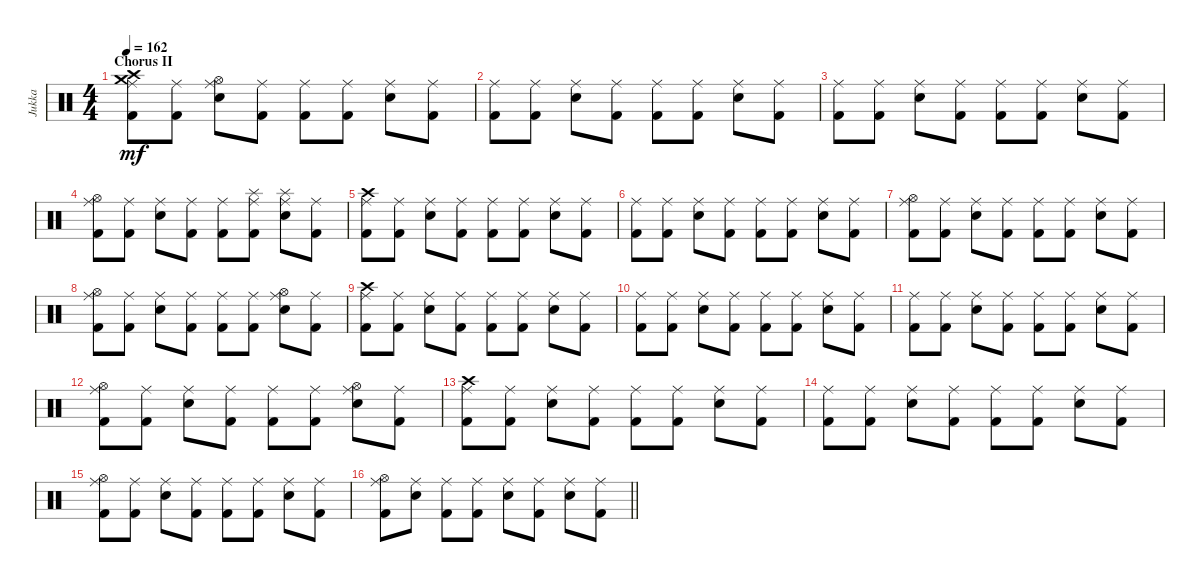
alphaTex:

\track ("Jukka" "Jukka") {instrument percussion}
\staff {score}
\articulation defaults
\ts (4 4)
\section ("" "Chorus II")
\tempo 162
\clef neutral
\ks c
("Crash medium (hit)" "Crash high (hit)" "Ride (middle)" "Kick (hit) 2").8{dy mf} ("Ride (middle)" "Kick (hit) 2").8 ("Hi-Hat (open)" "Ride (middle)" "Electric Snare (hit)").8 ("Ride (middle)" "Kick (hit) 2").8 ("Ride (middle)" "Kick (hit) 2").8 ("Ride (middle)" "Kick (hit) 2").8 ("Ride (middle)" "Electric Snare (hit)").8 ("Ride (middle)" "Kick (hit) 2").8 |
("Ride (middle)" "Kick (hit) 2").8 ("Ride (middle)" "Kick (hit) 2").8 ("Ride (middle)" "Electric Snare (hit)").8 ("Ride (middle)" "Kick (hit) 2").8 ("Ride (middle)" "Kick (hit) 2").8 ("Ride (middle)" "Kick (hit) 2").8 ("Ride (middle)" "Electric Snare (hit)").8 ("Ride (middle)" "Kick (hit) 2").8 |
("Ride (middle)" "Kick (hit) 2").8 ("Ride (middle)" "Kick (hit) 2").8 ("Ride (middle)" "Electric Snare (hit)").8 ("Ride (middle)" "Kick (hit) 2").8 ("Ride (middle)" "Kick (hit) 2").8 ("Ride (middle)" "Kick (hit) 2").8 ("Ride (middle)" "Electric Snare (hit)").8 ("Ride (middle)" "Kick (hit) 2").8 |
("Hi-Hat (open)" "Ride (middle)" "Kick (hit) 2").8 ("Ride (middle)" "Kick (hit) 2").8 ("Ride (middle)" "Electric Snare (hit)").8 ("Ride (middle)" "Kick (hit) 2").8 ("Ride (middle)" "Kick (hit) 2").8 ("Splash (hit)" "Ride (middle)" "Kick (hit) 2").8 ("Splash (hit)" "Ride (middle)" "Electric Snare (hit)").8 ("Ride (middle)" "Kick (hit) 2").8 |
("Crash high (hit)" "Ride (middle)" "Kick (hit) 2").8 ("Ride (middle)" "Kick (hit) 2").8 ("Ride (middle)" "Electric Snare (hit)").8 ("Ride (middle)" "Kick (hit) 2").8 ("Ride (middle)" "Kick (hit) 2").8 ("Ride (middle)" "Kick (hit) 2").8 ("Ride (middle)" "Electric Snare (hit)").8 ("Ride (middle)" "Kick (hit) 2").8 |
("Ride (middle)" "Kick (hit) 2").8 ("Ride (middle)" "Kick (hit) 2").8 ("Ride (middle)" "Electric Snare (hit)").8 ("Ride (middle)" "Kick (hit) 2").8 ("Ride (middle)" "Kick (hit) 2").8 ("Ride (middle)" "Kick (hit) 2").8 ("Ride (middle)" "Electric Snare (hit)").8 ("Ride (middle)" "Kick (hit) 2").8 |
("Hi-Hat (open)" "Ride (middle)" "Kick (hit) 2").8 ("Ride (middle)" "Kick (hit) 2").8 ("Ride (middle)" "Electric Snare (hit)").8 ("Ride (middle)" "Kick (hit) 2").8 ("Ride (middle)" "Kick (hit) 2").8 ("Ride (middle)" "Kick (hit) 2").8 ("Ride (middle)" "Electric Snare (hit)").8 ("Ride (middle)" "Kick (hit) 2").8 |
("Hi-Hat (open)" "Ride (middle)" "Kick (hit) 2").8 ("Ride (middle)" "Kick (hit) 2").8 ("Ride (middle)" "Electric Snare (hit)").8 ("Ride (middle)" "Kick (hit) 2").8 ("Ride (middle)" "Kick (hit) 2").8 ("Ride (middle)" "Kick (hit) 2").8 ("Hi-Hat (open)" "Ride (middle)" "Electric Snare (hit)").8 ("Ride (middle)" "Kick (hit) 2").8 |
("Crash high (hit)" "Ride (middle)" "Kick (hit) 2").8 ("Ride (middle)" "Kick (hit) 2").8 ("Ride (middle)" "Electric Snare (hit)").8 ("Ride (middle)" "Kick (hit) 2").8 ("Ride (middle)" "Kick (hit) 2").8 ("Ride (middle)" "Kick (hit) 2").8 ("Ride (middle)" "Electric Snare (hit)").8 ("Ride (middle)" "Kick (hit) 2").8 |
("Ride (middle)" "Kick (hit) 2").8 ("Ride (middle)" "Kick (hit) 2").8 ("Ride (middle)" "Electric Snare (hit)").8 ("Ride (middle)" "Kick (hit) 2").8 ("Ride (middle)" "Kick (hit) 2").8 ("Ride (middle)" "Kick (hit) 2").8 ("Ride (middle)" "Electric Snare (hit)").8 ("Ride (middle)" "Kick (hit) 2").8 |
("Ride (middle)" "Kick (hit) 2").8 ("Ride (middle)" "Kick (hit) 2").8 ("Ride (middle)" "Electric Snare (hit)").8 ("Ride (middle)" "Kick (hit) 2").8 ("Ride (middle)" "Kick (hit) 2").8 ("Ride (middle)" "Kick (hit) 2").8 ("Ride (middle)" "Electric Snare (hit)").8 ("Ride (middle)" "Kick (hit) 2").8 |
("Hi-Hat (open)" "Ride (middle)" "Kick (hit) 2").8 ("Ride (middle)" "Kick (hit) 2").8 ("Ride (middle)" "Electric Snare (hit)").8 ("Ride (middle)" "Kick (hit) 2").8 ("Ride (middle)" "Kick (hit) 2").8 ("Ride (middle)" "Kick (hit) 2").8 ("Hi-Hat (open)" "Ride (middle)" "Electric Snare (hit)").8 ("Ride (middle)" "Kick (hit) 2").8 |
("Crash high (hit)" "Ride (middle)" "Kick (hit) 2").8 ("Ride (middle)" "Kick (hit) 2").8 ("Ride (middle)" "Electric Snare (hit)").8 ("Ride (middle)" "Kick (hit) 2").8 ("Ride (middle)" "Kick (hit) 2").8 ("Ride (middle)" "Kick (hit) 2").8 ("Ride (middle)" "Electric Snare (hit)").8 ("Ride (middle)" "Kick (hit) 2").8 |
("Ride (middle)" "Kick (hit) 2").8 ("Ride (middle)" "Kick (hit) 2").8 ("Ride (middle)" "Electric Snare (hit)").8 ("Ride (middle)" "Kick (hit) 2").8 ("Ride (middle)" "Kick (hit) 2").8 ("Ride (middle)" "Kick (hit) 2").8 ("Ride (middle)" "Electric Snare (hit)").8 ("Ride (middle)" "Kick (hit) 2").8 |
("Hi-Hat (open)" "Ride (middle)" "Kick (hit) 2").8 ("Ride (middle)" "Kick (hit) 2").8 ("Ride (middle)" "Electric Snare (hit)").8 ("Ride (middle)" "Kick (hit) 2").8 ("Ride (middle)" "Kick (hit) 2").8 ("Ride (middle)" "Kick (hit) 2").8 ("Ride (middle)" "Electric Snare (hit)").8 ("Ride (middle)" "Kick (hit) 2").8 |
\barLineRight lightlight
("Hi-Hat (open)" "Ride (middle)" "Kick (hit) 2").8 ("Ride (middle)" "Electric Snare (hit)").8 ("Ride (middle)" "Kick (hit) 2").8 ("Ride (middle)" "Kick (hit) 2").8 ("Ride (middle)" "Electric Snare (hit)").8 ("Ride (middle)" "Kick (hit) 2").8 ("Ride (middle)" "Electric Snare (hit)").8 ("Ride (middle)" "Kick (hit) 2").8
